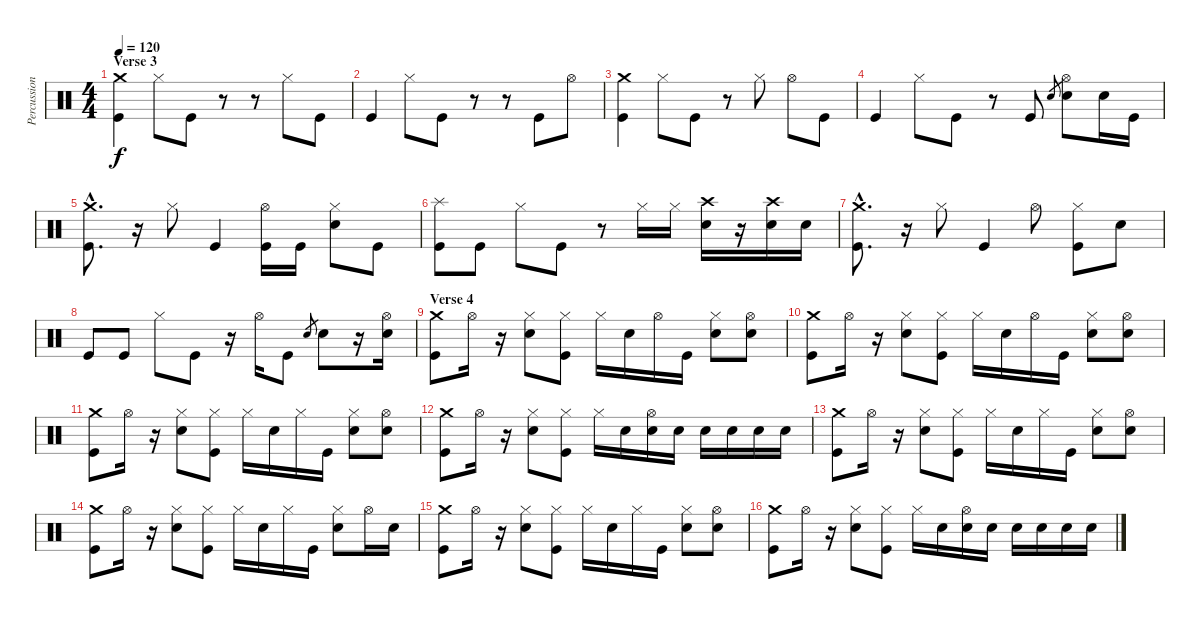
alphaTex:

\track ("Percussions" "Percussion") {instrument percussion}
\staff {score}
\articulation defaults
\ts (4 4)
\section ("" "Verse 3")
\tempo 120
\clef neutral
\ks c
("Crash medium (hit)" "Kick (hit)").4{dy f} "Hi-Hat (closed)".8 "Kick (hit)".8 r.8 r.8 "Hi-Hat (closed)".8 "Kick (hit)".8 |
"Kick (hit)".4 "Hi-Hat (closed)".8 "Kick (hit)".8 r.8 r.8 "Kick (hit)".8 "Hi-Hat (open)".8 |
("Crash medium (hit)" "Kick (hit)").4 "Hi-Hat (closed)".8 "Kick (hit)".8 r.8 "Hi-Hat (closed)".8 "Hi-Hat (open)".8 "Kick (hit)".8 |
"Kick (hit)".4 "Hi-Hat (closed)".8 "Kick (hit)".8 r.8 "Kick (hit)".8 "Electric Snare (hit)".8{gr} ("Hi-Hat (open)" "Electric Snare (hit)").8 "Electric Snare (hit)".16 "Kick (hit)".16 |
("Crash medium (hit)"{hac} "Kick (hit)"{hac}).8{d} r.16 "Hi-Hat (closed)".8 "Kick (hit)".4 ("Hi-Hat (open)" "Kick (hit)").16 "Kick (hit)".16 ("Hi-Hat (closed)" "Electric Snare (hit)").8 "Kick (hit)".8 |
("Splash (hit)" "Kick (hit)").8 "Kick (hit)".8 "Hi-Hat (closed)".8 "Kick (hit)".8 r.8 "Hi-Hat (closed)".16 "Hi-Hat (closed)".16 ("Crash high (hit)" "Electric Snare (hit)").16 r.16 ("Crash high (hit)" "Electric Snare (hit)").16 "Electric Snare (hit)".16 |
("Crash medium (hit)"{hac} "Kick (hit)"{hac}).8{d} r.16 "Hi-Hat (closed)".8 "Kick (hit)".4 "Hi-Hat (open)".8 ("Hi-Hat (closed)" "Kick (hit)").8 "Electric Snare (hit)".8 |
"Kick (hit)".8 "Kick (hit)".8 "Hi-Hat (closed)".8 "Kick (hit)".8 r.16 "Hi-Hat (open)".16 "Kick (hit)".8 "Electric Snare (hit)".8{gr} "Electric Snare (hit)".8 r.16 ("Hi-Hat (open)" "Electric Snare (hit)").16 |
\section ("" "Verse 4")
("Crash medium (hit)" "Kick (hit)").8 "Hi-Hat (open)".16 r.16 ("Hi-Hat (closed)" "Electric Snare (hit)").8 ("Hi-Hat (closed)" "Kick (hit)").8 "Hi-Hat (closed)".16 "Electric Snare (hit)".16 "Hi-Hat (open)".16 "Kick (hit)".16 ("Hi-Hat (closed)" "Electric Snare (hit)").8 ("Hi-Hat (open)" "Electric Snare (hit)").8 |
("Crash medium (hit)" "Kick (hit)").8 "Hi-Hat (open)".16 r.16 ("Hi-Hat (closed)" "Electric Snare (hit)").8 ("Hi-Hat (closed)" "Kick (hit)").8 "Hi-Hat (closed)".16 "Electric Snare (hit)".16 "Hi-Hat (open)".16 "Kick (hit)".16 ("Hi-Hat (closed)" "Electric Snare (hit)").8 ("Hi-Hat (open)" "Electric Snare (hit)").8 |
("Crash medium (hit)" "Kick (hit)").8 "Hi-Hat (open)".16 r.16 ("Hi-Hat (closed)" "Electric Snare (hit)").8 ("Hi-Hat (closed)" "Kick (hit)").8 "Hi-Hat (closed)".16 "Electric Snare (hit)".16 "Hi-Hat (closed)".16 "Kick (hit)".16 ("Hi-Hat (closed)" "Electric Snare (hit)").8 ("Hi-Hat (open)" "Electric Snare (hit)").8 |
("Crash medium (hit)" "Kick (hit)").8 "Hi-Hat (open)".16 r.16 ("Hi-Hat (closed)" "Electric Snare (hit)").8 ("Hi-Hat (closed)" "Kick (hit)").8 "Hi-Hat (closed)".16 "Electric Snare (hit)".16 ("Hi-Hat (open)" "Electric Snare (hit)").16 "Electric Snare (hit)".16 "Electric Snare (hit)".16 "Electric Snare (hit)".16 "Electric Snare (hit)".16 "Electric Snare (hit)".16 |
("Crash medium (hit)" "Kick (hit)").8 "Hi-Hat (open)".16 r.16 ("Hi-Hat (closed)" "Electric Snare (hit)").8 ("Hi-Hat (closed)" "Kick (hit)").8 "Hi-Hat (closed)".16 "Electric Snare (hit)".16 "Hi-Hat (closed)".16 "Kick (hit)".16 ("Hi-Hat (closed)" "Electric Snare (hit)").8 ("Hi-Hat (open)" "Electric Snare (hit)").8 |
("Crash medium (hit)" "Kick (hit)").8 "Hi-Hat (open)".16 r.16 ("Hi-Hat (closed)" "Electric Snare (hit)").8 ("Hi-Hat (closed)" "Kick (hit)").8 "Hi-Hat (closed)".16 "Electric Snare (hit)".16 "Hi-Hat (closed)".16 "Kick (hit)".16 ("Hi-Hat (closed)" "Electric Snare (hit)").8 "Hi-Hat (open)".16 "Electric Snare (hit)".16 |
("Crash medium (hit)" "Kick (hit)").8 "Hi-Hat (open)".16 r.16 ("Hi-Hat (closed)" "Electric Snare (hit)").8 ("Hi-Hat (closed)" "Kick (hit)").8 "Hi-Hat (closed)".16 "Electric Snare (hit)".16 "Hi-Hat (closed)".16 "Kick (hit)".16 ("Hi-Hat (closed)" "Electric Snare (hit)").8 ("Hi-Hat (open)" "Electric Snare (hit)").8 |
("Crash medium (hit)" "Kick (hit)").8 "Hi-Hat (open)".16 r.16 ("Hi-Hat (closed)" "Electric Snare (hit)").8 ("Hi-Hat (closed)" "Kick (hit)").8 "Hi-Hat (closed)".16 "Electric Snare (hit)".16 ("Hi-Hat (open)" "Electric Snare (hit)").16 "Electric Snare (hit)".16 "Electric Snare (hit)".16 "Electric Snare (hit)".16 "Electric Snare (hit)".16 "Electric Snare (hit)".16
